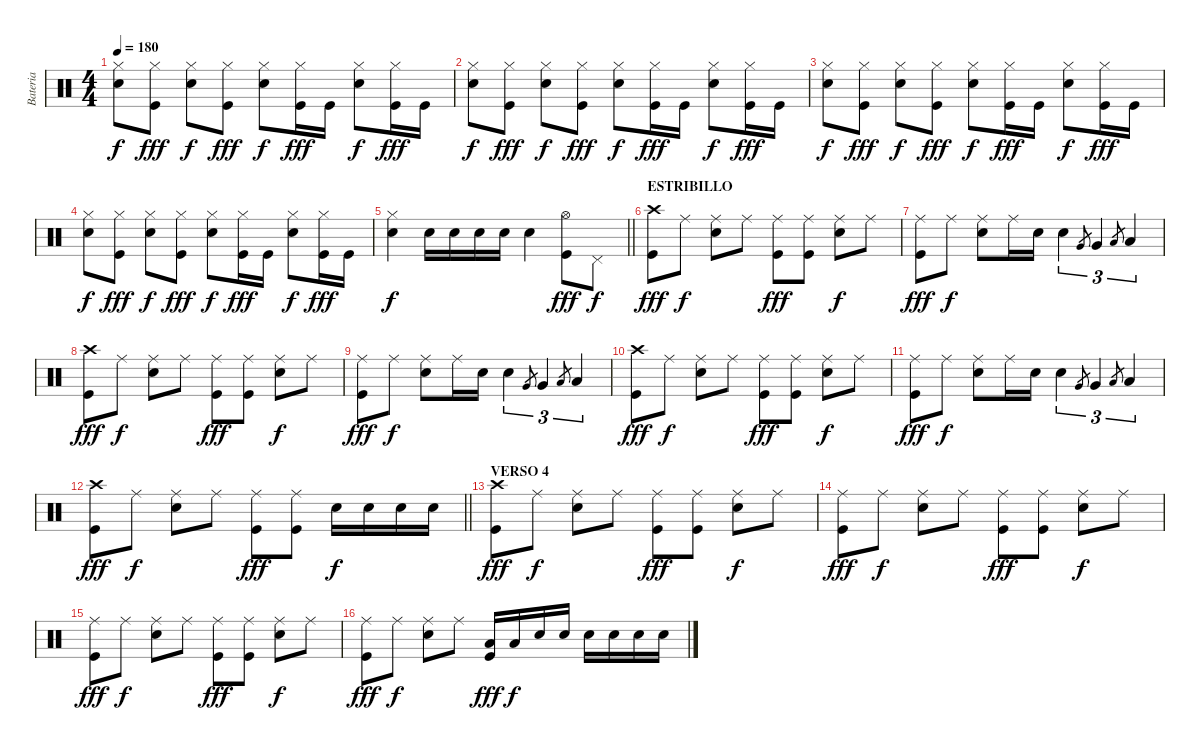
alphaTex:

\track ("Bateria" "Bateria") {instrument percussion}
\staff {score}
\articulation defaults
\ts (4 4)
\tempo 180
\clef neutral
\ks c
("Hi-Hat (closed)" "Snare (hit) 2").8{dy f} ("Hi-Hat (closed)" "Kick (hit)").8{dy fff} ("Hi-Hat (closed)" "Snare (hit) 2").8{dy f} ("Hi-Hat (closed)" "Kick (hit)").8{dy fff} ("Hi-Hat (closed)" "Snare (hit) 2").8{dy f} ("Hi-Hat (closed)" "Kick (hit)").16{dy fff} "Kick (hit)".16 ("Hi-Hat (closed)" "Snare (hit) 2").8{dy f} ("Hi-Hat (closed)" "Kick (hit)").16{dy fff} "Kick (hit)".16 |
("Hi-Hat (closed)" "Snare (hit) 2").8{dy f} ("Hi-Hat (closed)" "Kick (hit)").8{dy fff} ("Hi-Hat (closed)" "Snare (hit) 2").8{dy f} ("Hi-Hat (closed)" "Kick (hit)").8{dy fff} ("Hi-Hat (closed)" "Snare (hit) 2").8{dy f} ("Hi-Hat (closed)" "Kick (hit)").16{dy fff} "Kick (hit)".16 ("Hi-Hat (closed)" "Snare (hit) 2").8{dy f} ("Hi-Hat (closed)" "Kick (hit)").16{dy fff} "Kick (hit)".16 |
("Hi-Hat (closed)" "Snare (hit) 2").8{dy f} ("Hi-Hat (closed)" "Kick (hit)").8{dy fff} ("Hi-Hat (closed)" "Snare (hit) 2").8{dy f} ("Hi-Hat (closed)" "Kick (hit)").8{dy fff} ("Hi-Hat (closed)" "Snare (hit) 2").8{dy f} ("Hi-Hat (closed)" "Kick (hit)").16{dy fff} "Kick (hit)".16 ("Hi-Hat (closed)" "Snare (hit) 2").8{dy f} ("Hi-Hat (closed)" "Kick (hit)").16{dy fff} "Kick (hit)".16 |
("Hi-Hat (closed)" "Snare (hit) 2").8{dy f} ("Hi-Hat (closed)" "Kick (hit)").8{dy fff} ("Hi-Hat (closed)" "Snare (hit) 2").8{dy f} ("Hi-Hat (closed)" "Kick (hit)").8{dy fff} ("Hi-Hat (closed)" "Snare (hit) 2").8{dy f} ("Hi-Hat (closed)" "Kick (hit)").16{dy fff} "Kick (hit)".16 ("Hi-Hat (closed)" "Snare (hit) 2").8{dy f} ("Hi-Hat (closed)" "Kick (hit)").16{dy fff} "Kick (hit)".16 |
\barLineRight lightlight
("Hi-Hat (closed)" "Snare (hit) 2").4{dy f} "Snare (hit) 2".16 "Snare (hit) 2".16 "Snare (hit) 2".16 "Snare (hit) 2".16 "Snare (hit) 2".4 ("Hi-Hat (open)" "Kick (hit)").8{dy fff} "Pedal Hi-Hat (hit)".8{dy f} |
\section ("" "ESTRIBILLO")
("Crash high (hit)" "Kick (hit)").8{dy fff} "Ride (middle)".8{dy f} ("Ride (middle)" "Snare (hit) 2").8 "Ride (middle)".8 ("Ride (middle)" "Kick (hit)").8{dy fff} ("Ride (middle)" "Kick (hit)").8 ("Ride (middle)" "Snare (hit) 2").8{dy f} "Ride (middle)".8 |
("Ride (middle)" "Kick (hit)").8{dy fff} "Ride (middle)".8{dy f} ("Ride (middle)" "Snare (hit) 2").8 "Ride (middle)".16 "Snare (hit) 2".16 "Snare (hit) 2".4{tu (3 2)} "Very Low Tom (hit)".8{gr} "Very Low Tom (hit)".4{tu (3 2)} "Low Tom (hit)".8{gr} "Low Tom (hit)".4{tu (3 2)} |
("Crash high (hit)" "Kick (hit)").8{dy fff} "Ride (middle)".8{dy f} ("Ride (middle)" "Snare (hit) 2").8 "Ride (middle)".8 ("Ride (middle)" "Kick (hit)").8{dy fff} ("Ride (middle)" "Kick (hit)").8 ("Ride (middle)" "Snare (hit) 2").8{dy f} "Ride (middle)".8 |
("Ride (middle)" "Kick (hit)").8{dy fff} "Ride (middle)".8{dy f} ("Ride (middle)" "Snare (hit) 2").8 "Ride (middle)".16 "Snare (hit) 2".16 "Snare (hit) 2".4{tu (3 2)} "Very Low Tom (hit)".8{gr} "Very Low Tom (hit)".4{tu (3 2)} "Low Tom (hit)".8{gr} "Low Tom (hit)".4{tu (3 2)} |
("Crash high (hit)" "Kick (hit)").8{dy fff} "Ride (middle)".8{dy f} ("Ride (middle)" "Snare (hit) 2").8 "Ride (middle)".8 ("Ride (middle)" "Kick (hit)").8{dy fff} ("Ride (middle)" "Kick (hit)").8 ("Ride (middle)" "Snare (hit) 2").8{dy f} "Ride (middle)".8 |
("Ride (middle)" "Kick (hit)").8{dy fff} "Ride (middle)".8{dy f} ("Ride (middle)" "Snare (hit) 2").8 "Ride (middle)".16 "Snare (hit) 2".16 "Snare (hit) 2".4{tu (3 2)} "Very Low Tom (hit)".8{gr} "Very Low Tom (hit)".4{tu (3 2)} "Low Tom (hit)".8{gr} "Low Tom (hit)".4{tu (3 2)} |
\barLineRight lightlight
("Crash high (hit)" "Kick (hit)").8{dy fff} "Ride (middle)".8{dy f} ("Ride (middle)" "Snare (hit) 2").8 "Ride (middle)".8 ("Ride (middle)" "Kick (hit)").8{dy fff} ("Ride (middle)" "Kick (hit)").8 "Snare (hit) 2".16{dy f} "Snare (hit) 2".16 "Snare (hit) 2".16 "Snare (hit) 2".16 |
\section ("" "VERSO 4")
("Crash high (hit)" "Kick (hit)").8{dy fff} "Ride (middle)".8{dy f} ("Ride (middle)" "Snare (hit) 2").8 "Ride (middle)".8 ("Ride (middle)" "Kick (hit)").8{dy fff} ("Ride (middle)" "Kick (hit)").8 ("Ride (middle)" "Snare (hit) 2").8{dy f} "Ride (middle)".8 |
("Ride (middle)" "Kick (hit)").8{dy fff} "Ride (middle)".8{dy f} ("Ride (middle)" "Snare (hit) 2").8 "Ride (middle)".8 ("Ride (middle)" "Kick (hit)").8{dy fff} ("Ride (middle)" "Kick (hit)").8 ("Ride (middle)" "Snare (hit) 2").8{dy f} "Ride (middle)".8 |
("Ride (middle)" "Kick (hit)").8{dy fff} "Ride (middle)".8{dy f} ("Ride (middle)" "Snare (hit) 2").8 "Ride (middle)".8 ("Ride (middle)" "Kick (hit)").8{dy fff} ("Ride (middle)" "Kick (hit)").8 ("Ride (middle)" "Snare (hit) 2").8{dy f} "Ride (middle)".8 |
("Ride (middle)" "Kick (hit)").8{dy fff} "Ride (middle)".8{dy f} ("Ride (middle)" "Snare (hit) 2").8 "Ride (middle)".8 ("Low Tom (hit)" "Kick (hit)").16{dy fff} "Low Tom (hit)".16{dy f} "Snare (hit) 2".16 "Snare (hit) 2".16 "Snare (hit) 2".16 "Snare (hit) 2".16 "Snare (hit) 2".16 "Snare (hit) 2".16
